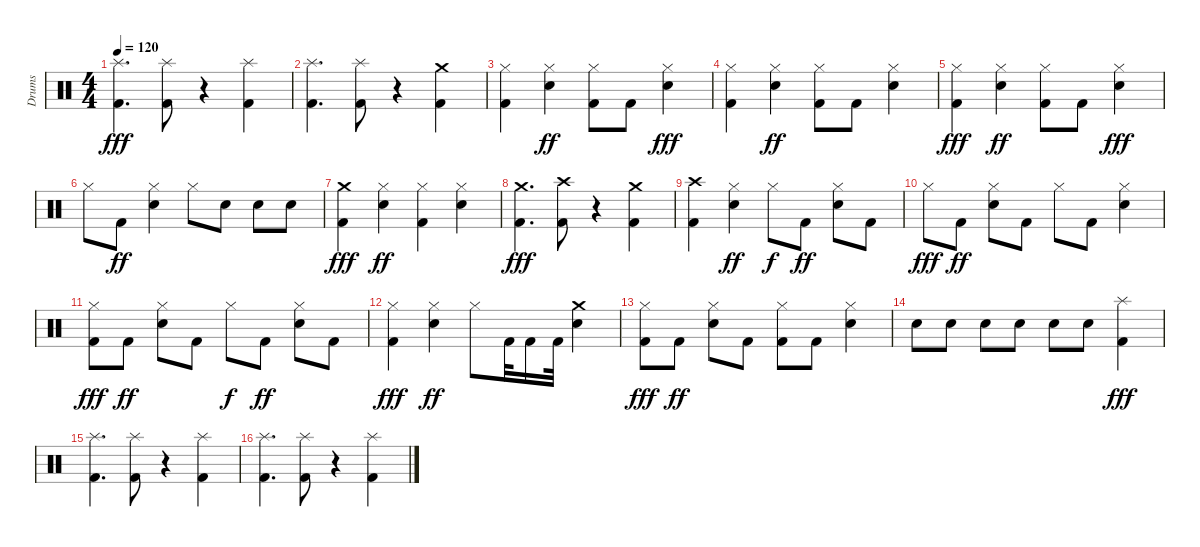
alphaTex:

\track ("Drums" "Drums") {instrument percussion}
\staff {score}
\articulation defaults
\ts (4 4)
\tempo 120
\clef neutral
\ks c
("Kick (hit) 2" "Splash (hit)").4{d dy fff} ("Kick (hit) 2" "Splash (hit)").8 r.4 ("Kick (hit) 2" "Splash (hit)").4 |
("Kick (hit) 2" "Splash (hit)").4{d} ("Kick (hit) 2" "Splash (hit)").8 r.4 ("Kick (hit) 2" "Crash medium (hit)").4 |
("Kick (hit) 2" "Hi-Hat (closed)").4 ("Electric Snare (hit)" "Hi-Hat (closed)").4{dy ff} ("Kick (hit) 2" "Hi-Hat (closed)").8 "Kick (hit) 2".8 ("Electric Snare (hit)" "Hi-Hat (closed)").4{dy fff} |
("Kick (hit) 2" "Hi-Hat (closed)").4 ("Electric Snare (hit)" "Hi-Hat (closed)").4{dy ff} ("Kick (hit) 2" "Hi-Hat (closed)").8 "Kick (hit) 2".8 ("Electric Snare (hit)" "Hi-Hat (closed)").4 |
("Kick (hit) 2" "Hi-Hat (closed)").4{dy fff} ("Electric Snare (hit)" "Hi-Hat (closed)").4{dy ff} ("Kick (hit) 2" "Hi-Hat (closed)").8 "Kick (hit) 2".8 ("Electric Snare (hit)" "Hi-Hat (closed)").4{dy fff} |
"Hi-Hat (closed)".8 "Kick (hit) 2".8{dy ff} ("Hi-Hat (closed)" "Electric Snare (hit)").4 "Hi-Hat (closed)".8 "Electric Snare (hit)".8 "Electric Snare (hit)".8 "Electric Snare (hit)".8 |
("Kick (hit) 2" "Crash medium (hit)").4{dy fff} ("Hi-Hat (closed)" "Electric Snare (hit)").4{dy ff} ("Kick (hit) 2" "Hi-Hat (closed)").4 ("Hi-Hat (closed)" "Electric Snare (hit)").4 |
("Kick (hit) 2" "Crash medium (hit)").4{d dy fff} ("Kick (hit) 2" "Crash high (hit)").8 r.4 ("Kick (hit) 2" "Crash medium (hit)").4 |
("Kick (hit) 2" "Crash high (hit)").4 ("Hi-Hat (closed)" "Electric Snare (hit)").4{dy ff} "Hi-Hat (closed)".8{dy f} "Kick (hit) 2".8{dy ff} ("Hi-Hat (closed)" "Electric Snare (hit)").8 "Kick (hit) 2".8 |
"Hi-Hat (closed)".8{dy fff} "Kick (hit) 2".8{dy ff} ("Hi-Hat (closed)" "Electric Snare (hit)").8 "Kick (hit) 2".8 "Hi-Hat (closed)".8 "Kick (hit) 2".8 ("Hi-Hat (closed)" "Electric Snare (hit)").4 |
("Kick (hit) 2" "Hi-Hat (closed)").8{dy fff} "Kick (hit) 2".8{dy ff} ("Hi-Hat (closed)" "Electric Snare (hit)").8 "Kick (hit) 2".8 "Hi-Hat (closed)".8{dy f} "Kick (hit) 2".8{dy ff} ("Hi-Hat (closed)" "Electric Snare (hit)").8 "Kick (hit) 2".8 |
("Kick (hit) 2" "Hi-Hat (closed)").4{dy fff} ("Hi-Hat (closed)" "Electric Snare (hit)").4{dy ff} "Hi-Hat (closed)".8 "Kick (hit) 2".32 "Kick (hit) 2".16 "Kick (hit) 2".32 ("Crash medium (hit)" "Electric Snare (hit)").4 |
("Kick (hit) 2" "Hi-Hat (closed)").8{dy fff} "Kick (hit) 2".8{dy ff} ("Hi-Hat (closed)" "Electric Snare (hit)").8 "Kick (hit) 2".8 ("Kick (hit) 2" "Hi-Hat (closed)").8 "Kick (hit) 2".8 ("Hi-Hat (closed)" "Electric Snare (hit)").4 |
"Electric Snare (hit)".8 "Electric Snare (hit)".8 "Electric Snare (hit)".8 "Electric Snare (hit)".8 "Electric Snare (hit)".8 "Electric Snare (hit)".8 ("Kick (hit) 2" "Splash (hit)").4{dy fff} |
("Kick (hit) 2" "Splash (hit)").4{d} ("Kick (hit) 2" "Splash (hit)").8 r.4 ("Kick (hit) 2" "Splash (hit)").4 |
("Kick (hit) 2" "Splash (hit)").4{d} ("Kick (hit) 2" "Splash (hit)").8 r.4 ("Kick (hit) 2" "Splash (hit)").4
